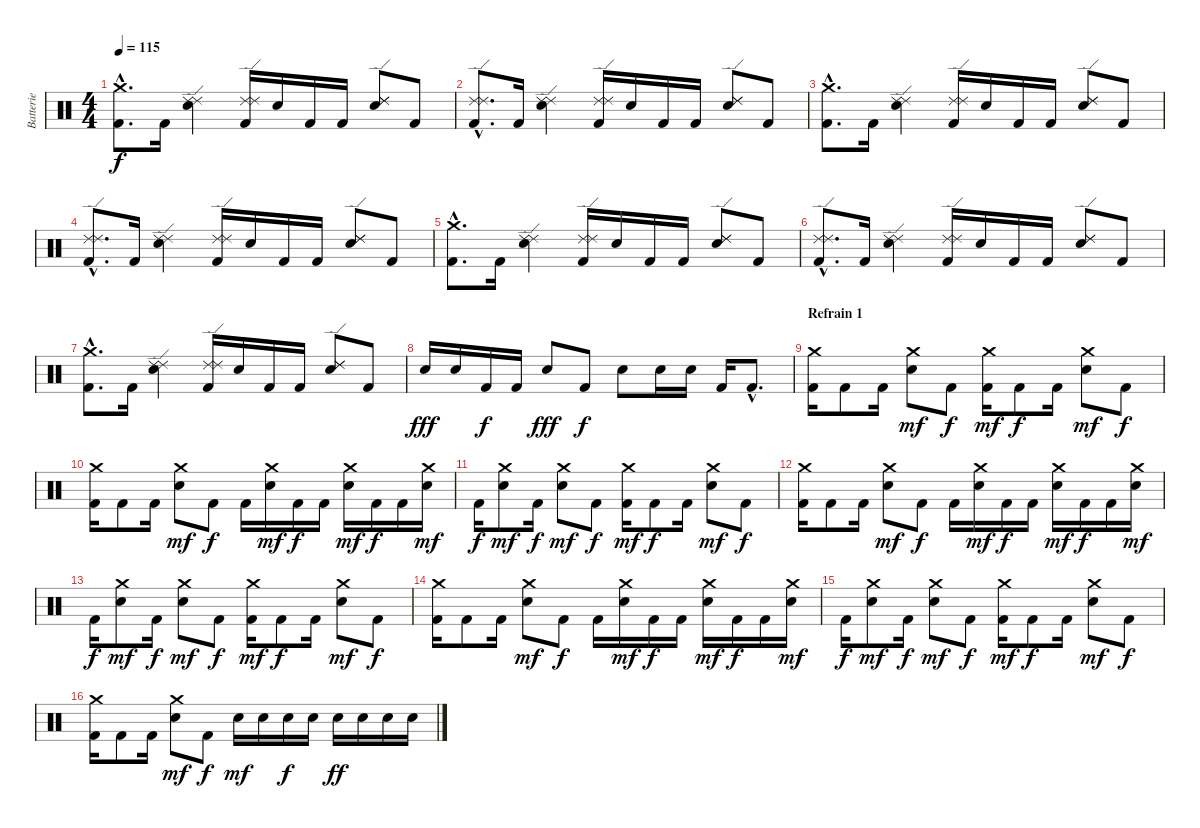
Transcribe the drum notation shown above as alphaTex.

\track ("Batterie" "Batterie") {instrument percussion}
\staff {score}
\articulation defaults
\ts (4 4)
\tempo 115
\clef neutral
\ks c
("Crash medium (hit)"{hac} "Kick (hit) 2"{hac}).8{d dy f} "Kick (hit) 2".16 ("Ride (edge) 2" "Ride (edge) 2" "Electric Snare (hit)").4 ("Ride (edge) 2" "Ride (edge) 2" "Kick (hit) 2").16 "Electric Snare (hit)".16 "Kick (hit) 2".16 "Kick (hit) 2".16 ("Ride (edge) 2" "Ride (edge) 2" "Electric Snare (hit)").8 "Kick (hit) 2".8 |
("Ride (edge) 2"{hac} "Ride (edge) 2"{hac} "Kick (hit) 2"{hac}).8{d} "Kick (hit) 2".16 ("Ride (edge) 2" "Ride (edge) 2" "Electric Snare (hit)").4 ("Ride (edge) 2" "Ride (edge) 2" "Kick (hit) 2").16 "Electric Snare (hit)".16 "Kick (hit) 2".16 "Kick (hit) 2".16 ("Ride (edge) 2" "Ride (edge) 2" "Electric Snare (hit)").8 "Kick (hit) 2".8 |
("Crash medium (hit)"{hac} "Kick (hit) 2"{hac}).8{d} "Kick (hit) 2".16 ("Ride (edge) 2" "Ride (edge) 2" "Electric Snare (hit)").4 ("Ride (edge) 2" "Ride (edge) 2" "Kick (hit) 2").16 "Electric Snare (hit)".16 "Kick (hit) 2".16 "Kick (hit) 2".16 ("Ride (edge) 2" "Ride (edge) 2" "Electric Snare (hit)").8 "Kick (hit) 2".8 |
("Ride (edge) 2"{hac} "Ride (edge) 2"{hac} "Kick (hit) 2"{hac}).8{d} "Kick (hit) 2".16 ("Ride (edge) 2" "Ride (edge) 2" "Electric Snare (hit)").4 ("Ride (edge) 2" "Ride (edge) 2" "Kick (hit) 2").16 "Electric Snare (hit)".16 "Kick (hit) 2".16 "Kick (hit) 2".16 ("Ride (edge) 2" "Ride (edge) 2" "Electric Snare (hit)").8 "Kick (hit) 2".8 |
("Crash medium (hit)"{hac} "Kick (hit) 2"{hac}).8{d} "Kick (hit) 2".16 ("Ride (edge) 2" "Ride (edge) 2" "Electric Snare (hit)").4 ("Ride (edge) 2" "Ride (edge) 2" "Kick (hit) 2").16 "Electric Snare (hit)".16 "Kick (hit) 2".16 "Kick (hit) 2".16 ("Ride (edge) 2" "Ride (edge) 2" "Electric Snare (hit)").8 "Kick (hit) 2".8 |
("Ride (edge) 2"{hac} "Ride (edge) 2"{hac} "Kick (hit) 2"{hac}).8{d} "Kick (hit) 2".16 ("Ride (edge) 2" "Ride (edge) 2" "Electric Snare (hit)").4 ("Ride (edge) 2" "Ride (edge) 2" "Kick (hit) 2").16 "Electric Snare (hit)".16 "Kick (hit) 2".16 "Kick (hit) 2".16 ("Ride (edge) 2" "Ride (edge) 2" "Electric Snare (hit)").8 "Kick (hit) 2".8 |
("Crash medium (hit)"{hac} "Kick (hit) 2"{hac}).8{d} "Kick (hit) 2".16 ("Ride (edge) 2" "Ride (edge) 2" "Electric Snare (hit)").4 ("Ride (edge) 2" "Ride (edge) 2" "Kick (hit) 2").16 "Electric Snare (hit)".16 "Kick (hit) 2".16 "Kick (hit) 2".16 ("Ride (edge) 2" "Ride (edge) 2" "Electric Snare (hit)").8 "Kick (hit) 2".8 |
"Electric Snare (hit)".16{dy fff} "Electric Snare (hit)".16 "Kick (hit) 2".16{dy f} "Kick (hit) 2".16 "Electric Snare (hit)".8{dy fff} "Kick (hit) 2".8{dy f} "Electric Snare (hit)".8 "Electric Snare (hit)".16 "Electric Snare (hit)".16 "Kick (hit) 2".16 "Kick (hit) 2"{hac}.8{d} |
\section ("" "Refrain 1")
("Crash medium (hit)" "Kick (hit) 2").16 "Kick (hit) 2".8 "Kick (hit) 2".16 ("Crash medium (hit)" "Electric Snare (hit)").8{dy mf} "Kick (hit) 2".8{dy f} ("Crash medium (hit)" "Kick (hit) 2").16{dy mf} "Kick (hit) 2".8{dy f} "Kick (hit) 2".16 ("Crash medium (hit)" "Electric Snare (hit)").8{dy mf} "Kick (hit) 2".8{dy f} |
("Crash medium (hit)" "Kick (hit) 2").16 "Kick (hit) 2".8 "Kick (hit) 2".16 ("Crash medium (hit)" "Electric Snare (hit)").8{dy mf} "Kick (hit) 2".8{dy f} "Kick (hit) 2".16 ("Crash medium (hit)" "Electric Snare (hit)").16{dy mf} "Kick (hit) 2".16{dy f} "Kick (hit) 2".16 ("Crash medium (hit)" "Electric Snare (hit)").16{dy mf} "Kick (hit) 2".16{dy f} "Kick (hit) 2".16 ("Crash medium (hit)" "Electric Snare (hit)").16{dy mf} |
"Kick (hit) 2".16{dy f} ("Crash medium (hit)" "Electric Snare (hit)").8{dy mf} "Kick (hit) 2".16{dy f} ("Crash medium (hit)" "Electric Snare (hit)").8{dy mf} "Kick (hit) 2".8{dy f} ("Crash medium (hit)" "Kick (hit) 2").16{dy mf} "Kick (hit) 2".8{dy f} "Kick (hit) 2".16 ("Crash medium (hit)" "Electric Snare (hit)").8{dy mf} "Kick (hit) 2".8{dy f} |
("Crash medium (hit)" "Kick (hit) 2").16 "Kick (hit) 2".8 "Kick (hit) 2".16 ("Crash medium (hit)" "Electric Snare (hit)").8{dy mf} "Kick (hit) 2".8{dy f} "Kick (hit) 2".16 ("Crash medium (hit)" "Electric Snare (hit)").16{dy mf} "Kick (hit) 2".16{dy f} "Kick (hit) 2".16 ("Crash medium (hit)" "Electric Snare (hit)").16{dy mf} "Kick (hit) 2".16{dy f} "Kick (hit) 2".16 ("Crash medium (hit)" "Electric Snare (hit)").16{dy mf} |
"Kick (hit) 2".16{dy f} ("Crash medium (hit)" "Electric Snare (hit)").8{dy mf} "Kick (hit) 2".16{dy f} ("Crash medium (hit)" "Electric Snare (hit)").8{dy mf} "Kick (hit) 2".8{dy f} ("Crash medium (hit)" "Kick (hit) 2").16{dy mf} "Kick (hit) 2".8{dy f} "Kick (hit) 2".16 ("Crash medium (hit)" "Electric Snare (hit)").8{dy mf} "Kick (hit) 2".8{dy f} |
("Crash medium (hit)" "Kick (hit) 2").16 "Kick (hit) 2".8 "Kick (hit) 2".16 ("Crash medium (hit)" "Electric Snare (hit)").8{dy mf} "Kick (hit) 2".8{dy f} "Kick (hit) 2".16 ("Crash medium (hit)" "Electric Snare (hit)").16{dy mf} "Kick (hit) 2".16{dy f} "Kick (hit) 2".16 ("Crash medium (hit)" "Electric Snare (hit)").16{dy mf} "Kick (hit) 2".16{dy f} "Kick (hit) 2".16 ("Crash medium (hit)" "Electric Snare (hit)").16{dy mf} |
"Kick (hit) 2".16{dy f} ("Crash medium (hit)" "Electric Snare (hit)").8{dy mf} "Kick (hit) 2".16{dy f} ("Crash medium (hit)" "Electric Snare (hit)").8{dy mf} "Kick (hit) 2".8{dy f} ("Crash medium (hit)" "Kick (hit) 2").16{dy mf} "Kick (hit) 2".8{dy f} "Kick (hit) 2".16 ("Crash medium (hit)" "Electric Snare (hit)").8{dy mf} "Kick (hit) 2".8{dy f} |
("Crash medium (hit)" "Kick (hit) 2").16 "Kick (hit) 2".8 "Kick (hit) 2".16 ("Crash medium (hit)" "Electric Snare (hit)").8{dy mf} "Kick (hit) 2".8{dy f} "Electric Snare (hit)".16{dy mf} "Electric Snare (hit)".16 "Electric Snare (hit)".16{dy f} "Electric Snare (hit)".16 "Electric Snare (hit)".16{dy ff} "Electric Snare (hit)".16 "Electric Snare (hit)".16 "Electric Snare (hit)".16
